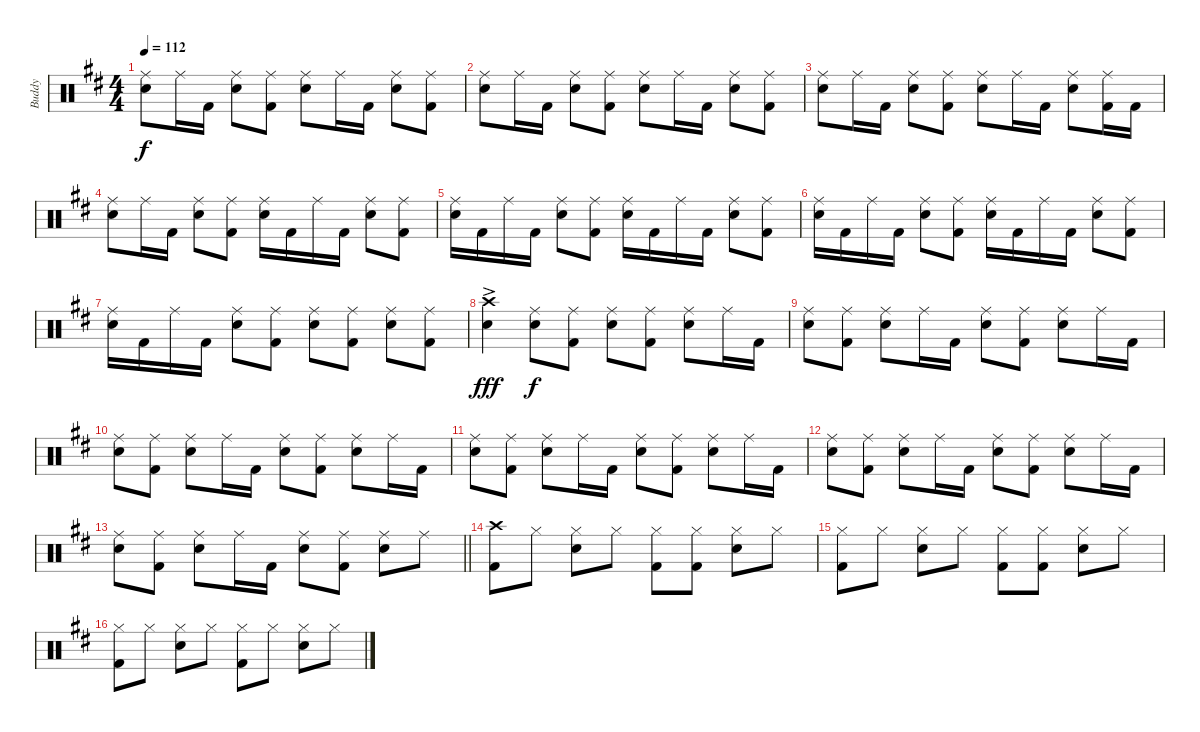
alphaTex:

\track ("Buddy " "Buddy ") {instrument percussion}
\staff {score}
\articulation defaults
\ts (4 4)
\tempo 112
\clef neutral
\ks d
("Ride (middle)" "Snare (hit) 2").8{dy f} "Ride (middle)".16 "Kick (hit) 2".16 ("Ride (middle)" "Snare (hit) 2").8 ("Ride (middle)" "Kick (hit) 2").8 ("Ride (middle)" "Snare (hit) 2").8 "Ride (middle)".16 "Kick (hit) 2".16 ("Ride (middle)" "Snare (hit) 2").8 ("Ride (middle)" "Kick (hit) 2").8 |
("Ride (middle)" "Snare (hit) 2").8 "Ride (middle)".16 "Kick (hit) 2".16 ("Ride (middle)" "Snare (hit) 2").8 ("Ride (middle)" "Kick (hit) 2").8 ("Ride (middle)" "Snare (hit) 2").8 "Ride (middle)".16 "Kick (hit) 2".16 ("Ride (middle)" "Snare (hit) 2").8 ("Ride (middle)" "Kick (hit) 2").8 |
("Ride (middle)" "Snare (hit) 2").8 "Ride (middle)".16 "Kick (hit) 2".16 ("Ride (middle)" "Snare (hit) 2").8 ("Ride (middle)" "Kick (hit) 2").8 ("Ride (middle)" "Snare (hit) 2").8 "Ride (middle)".16 "Kick (hit) 2".16 ("Ride (middle)" "Snare (hit) 2").8 ("Ride (middle)" "Kick (hit) 2").16 "Kick (hit) 2".16 |
("Ride (middle)" "Snare (hit) 2").8 "Ride (middle)".16 "Kick (hit) 2".16 ("Ride (middle)" "Snare (hit) 2").8 ("Ride (middle)" "Kick (hit) 2").8 ("Ride (middle)" "Snare (hit) 2").16 "Kick (hit) 2".16 "Ride (middle)".16 "Kick (hit) 2".16 ("Ride (middle)" "Snare (hit) 2").8 ("Ride (middle)" "Kick (hit) 2").8 |
("Ride (middle)" "Snare (hit) 2").16 "Kick (hit) 2".16 "Ride (middle)".16 "Kick (hit) 2".16 ("Ride (middle)" "Snare (hit) 2").8 ("Ride (middle)" "Kick (hit) 2").8 ("Ride (middle)" "Snare (hit) 2").16 "Kick (hit) 2".16 "Ride (middle)".16 "Kick (hit) 2".16 ("Ride (middle)" "Snare (hit) 2").8 ("Ride (middle)" "Kick (hit) 2").8 |
("Ride (middle)" "Snare (hit) 2").16 "Kick (hit) 2".16 "Ride (middle)".16 "Kick (hit) 2".16 ("Ride (middle)" "Snare (hit) 2").8 ("Ride (middle)" "Kick (hit) 2").8 ("Ride (middle)" "Snare (hit) 2").16 "Kick (hit) 2".16 "Ride (middle)".16 "Kick (hit) 2".16 ("Ride (middle)" "Snare (hit) 2").8 ("Ride (middle)" "Kick (hit) 2").8 |
("Ride (middle)" "Snare (hit) 2").16 "Kick (hit) 2".16 "Ride (middle)".16 "Kick (hit) 2".16 ("Ride (middle)" "Snare (hit) 2").8 ("Ride (middle)" "Kick (hit) 2").8 ("Ride (middle)" "Snare (hit) 2").8 ("Ride (middle)" "Kick (hit) 2").8 ("Ride (middle)" "Snare (hit) 2").8 ("Ride (middle)" "Kick (hit) 2").8 |
("Crash high (hit)"{ac} "Snare (hit) 2"{ac}).4{dy fff} ("Ride (middle)" "Snare (hit) 2").8{dy f} ("Ride (middle)" "Kick (hit) 2").8 ("Ride (middle)" "Snare (hit) 2").8 ("Ride (middle)" "Kick (hit) 2").8 ("Ride (middle)" "Snare (hit) 2").8 "Ride (middle)".16 "Kick (hit) 2".16 |
("Ride (middle)" "Snare (hit) 2").8 ("Ride (middle)" "Kick (hit) 2").8 ("Ride (middle)" "Snare (hit) 2").8 "Ride (middle)".16 "Kick (hit) 2".16 ("Ride (middle)" "Snare (hit) 2").8 ("Ride (middle)" "Kick (hit) 2").8 ("Ride (middle)" "Snare (hit) 2").8 "Ride (middle)".16 "Kick (hit) 2".16 |
("Ride (middle)" "Snare (hit) 2").8 ("Ride (middle)" "Kick (hit) 2").8 ("Ride (middle)" "Snare (hit) 2").8 "Ride (middle)".16 "Kick (hit) 2".16 ("Ride (middle)" "Snare (hit) 2").8 ("Ride (middle)" "Kick (hit) 2").8 ("Ride (middle)" "Snare (hit) 2").8 "Ride (middle)".16 "Kick (hit) 2".16 |
("Ride (middle)" "Snare (hit) 2").8 ("Ride (middle)" "Kick (hit) 2").8 ("Ride (middle)" "Snare (hit) 2").8 "Ride (middle)".16 "Kick (hit) 2".16 ("Ride (middle)" "Snare (hit) 2").8 ("Ride (middle)" "Kick (hit) 2").8 ("Ride (middle)" "Snare (hit) 2").8 "Ride (middle)".16 "Kick (hit) 2".16 |
("Ride (middle)" "Snare (hit) 2").8 ("Ride (middle)" "Kick (hit) 2").8 ("Ride (middle)" "Snare (hit) 2").8 "Ride (middle)".16 "Kick (hit) 2".16 ("Ride (middle)" "Snare (hit) 2").8 ("Ride (middle)" "Kick (hit) 2").8 ("Ride (middle)" "Snare (hit) 2").8 "Ride (middle)".16 "Kick (hit) 2".16 |
\barLineRight lightlight
("Ride (middle)" "Snare (hit) 2").8 ("Ride (middle)" "Kick (hit) 2").8 ("Ride (middle)" "Snare (hit) 2").8 "Ride (middle)".16 "Kick (hit) 2".16 ("Ride (middle)" "Snare (hit) 2").8 ("Ride (middle)" "Kick (hit) 2").8 ("Ride (middle)" "Snare (hit) 2").8 "Ride (middle)".8 |
("Crash high (hit)" "Kick (hit) 2").8 "Hi-Hat (closed)".8 ("Hi-Hat (closed)" "Snare (hit) 2").8 "Hi-Hat (closed)".8 ("Hi-Hat (closed)" "Kick (hit) 2").8 ("Hi-Hat (closed)" "Kick (hit) 2").8 ("Hi-Hat (closed)" "Snare (hit) 2").8 "Hi-Hat (closed)".8 |
("Hi-Hat (closed)" "Kick (hit) 2").8 "Hi-Hat (closed)".8 ("Hi-Hat (closed)" "Snare (hit) 2").8 "Hi-Hat (closed)".8 ("Hi-Hat (closed)" "Kick (hit) 2").8 ("Hi-Hat (closed)" "Kick (hit) 2").8 ("Hi-Hat (closed)" "Snare (hit) 2").8 "Hi-Hat (closed)".8 |
("Hi-Hat (closed)" "Kick (hit) 2").8 "Hi-Hat (closed)".8 ("Hi-Hat (closed)" "Snare (hit) 2").8 "Hi-Hat (closed)".8 ("Hi-Hat (closed)" "Kick (hit) 2").8 "Hi-Hat (closed)".8 ("Hi-Hat (closed)" "Snare (hit) 2").8 "Hi-Hat (closed)".8
